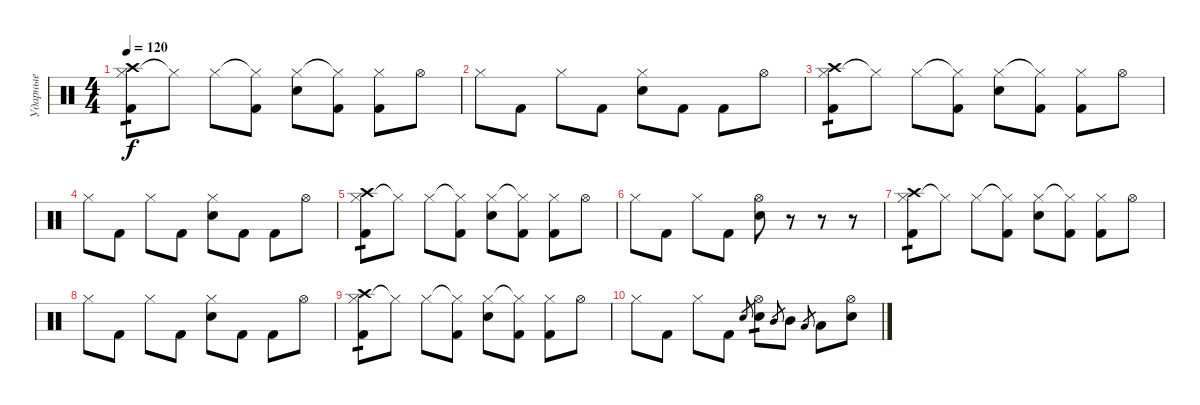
\track ("Ударные" "Ударные") {instrument percussion}
\staff {score}
\articulation defaults
\ts (4 4)
\tempo 120
\clef neutral
\ks c
("Hi-Hat (closed)" "Kick (hit) 2" "Crash high (hit)").8{tp 1 dy f} "Hi-Hat (closed)"{t}.8 "Hi-Hat (closed)".8 ("Hi-Hat (closed)"{t} "Kick (hit) 2").8 ("Hi-Hat (closed)" "Electric Snare (hit)").8 ("Hi-Hat (closed)"{t} "Kick (hit) 2").8 ("Hi-Hat (closed)" "Kick (hit) 2").8 "Hi-Hat (open)".8 |
"Hi-Hat (closed)".8 "Kick (hit) 2".8 "Hi-Hat (closed)".8 "Kick (hit) 2".8 ("Electric Snare (hit)" "Hi-Hat (closed)").8 "Kick (hit) 2".8 "Kick (hit) 2".8 "Hi-Hat (open)".8 |
("Hi-Hat (closed)" "Kick (hit) 2" "Crash high (hit)").8{tp 1} "Hi-Hat (closed)"{t}.8 "Hi-Hat (closed)".8 ("Hi-Hat (closed)"{t} "Kick (hit) 2").8 ("Hi-Hat (closed)" "Electric Snare (hit)").8 ("Hi-Hat (closed)"{t} "Kick (hit) 2").8 ("Hi-Hat (closed)" "Kick (hit) 2").8 "Hi-Hat (open)".8 |
"Hi-Hat (closed)".8 "Kick (hit) 2".8 "Hi-Hat (closed)".8 "Kick (hit) 2".8 ("Electric Snare (hit)" "Hi-Hat (closed)").8 "Kick (hit) 2".8 "Kick (hit) 2".8 "Hi-Hat (open)".8 |
("Hi-Hat (closed)" "Kick (hit) 2" "Crash high (hit)").8{tp 1} "Hi-Hat (closed)"{t}.8 "Hi-Hat (closed)".8 ("Hi-Hat (closed)"{t} "Kick (hit) 2").8 ("Hi-Hat (closed)" "Electric Snare (hit)").8 ("Hi-Hat (closed)"{t} "Kick (hit) 2").8 ("Hi-Hat (closed)" "Kick (hit) 2").8 "Hi-Hat (open)".8 |
"Hi-Hat (closed)".8 "Kick (hit) 2".8 "Hi-Hat (closed)".8 "Kick (hit) 2".8 ("Electric Snare (hit)" "Hi-Hat (open)").8 r.8 r.8 r.8 |
("Hi-Hat (closed)" "Kick (hit) 2" "Crash high (hit)").8{tp 1} "Hi-Hat (closed)"{t}.8 "Hi-Hat (closed)".8 ("Hi-Hat (closed)"{t} "Kick (hit) 2").8 ("Hi-Hat (closed)" "Electric Snare (hit)").8 ("Hi-Hat (closed)"{t} "Kick (hit) 2").8 ("Hi-Hat (closed)" "Kick (hit) 2").8 "Hi-Hat (open)".8 |
"Hi-Hat (closed)".8 "Kick (hit) 2".8 "Hi-Hat (closed)".8 "Kick (hit) 2".8 ("Electric Snare (hit)" "Hi-Hat (closed)").8 "Kick (hit) 2".8 "Kick (hit) 2".8 "Hi-Hat (open)".8 |
("Hi-Hat (closed)" "Kick (hit) 2" "Crash high (hit)").8{tp 1} "Hi-Hat (closed)"{t}.8 "Hi-Hat (closed)".8 ("Hi-Hat (closed)"{t} "Kick (hit) 2").8 ("Hi-Hat (closed)" "Electric Snare (hit)").8 ("Hi-Hat (closed)"{t} "Kick (hit) 2").8 ("Hi-Hat (closed)" "Kick (hit) 2").8 "Hi-Hat (open)".8 |
"Hi-Hat (closed)".8 "Kick (hit) 2".8 "Hi-Hat (closed)".8 "Kick (hit) 2".8 "Electric Snare (hit)".8{gr} ("Electric Snare (hit)" "Hi-Hat (open)").8{tp 1} "Mid Tom (hit)".8{gr} "Mid Tom (hit)".8 "Low Tom (hit)".8{gr} "Low Tom (hit)".8 ("Hi-Hat (open)" "Electric Snare (hit)").8
